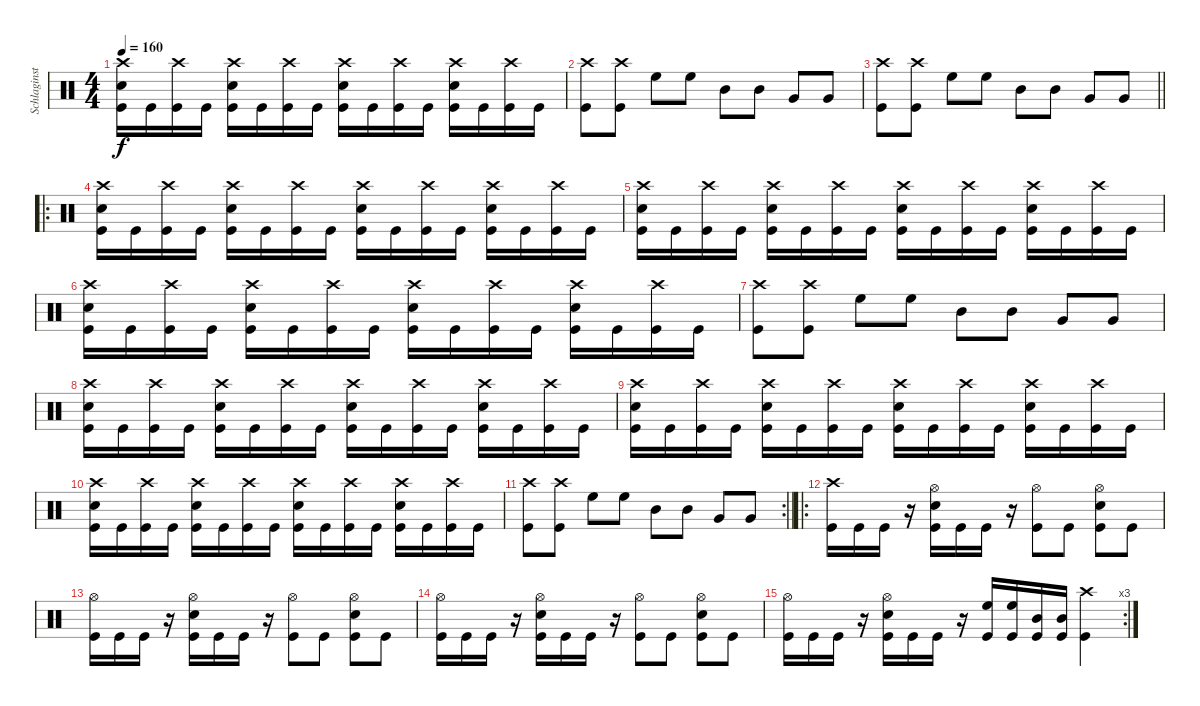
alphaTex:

\track ("Schlaginstrumente - Auswahl" "Schlaginst") {solo instrument percussion}
\staff {score}
\articulation defaults
\ts (4 4)
\tempo 160
\clef neutral
\ks c
("Kick (hit)" "Crash high (hit)" "Electric Snare (hit)").16{dy f} "Kick (hit)".16 ("Kick (hit)" "Crash high (hit)").16 "Kick (hit)".16 ("Kick (hit)" "Crash high (hit)" "Electric Snare (hit)").16 "Kick (hit)".16 ("Kick (hit)" "Crash high (hit)").16 "Kick (hit)".16 ("Kick (hit)" "Crash high (hit)" "Electric Snare (hit)").16 "Kick (hit)".16 ("Kick (hit)" "Crash high (hit)").16 "Kick (hit)".16 ("Kick (hit)" "Crash high (hit)" "Electric Snare (hit)").16 "Kick (hit)".16 ("Kick (hit)" "Crash high (hit)").16 "Kick (hit)".16 |
("Crash high (hit)" "Kick (hit)").8 ("Crash high (hit)" "Kick (hit)").8 "High Floor Tom (hit)".8 "High Floor Tom (hit)".8 "Mid Tom (hit)".8 "Mid Tom (hit)".8 "Very Low Tom (hit)".8 "Very Low Tom (hit)".8 |
\barLineRight lightlight
("Crash high (hit)" "Kick (hit)").8 ("Crash high (hit)" "Kick (hit)").8 "High Floor Tom (hit)".8 "High Floor Tom (hit)".8 "Mid Tom (hit)".8 "Mid Tom (hit)".8 "Very Low Tom (hit)".8 "Very Low Tom (hit)".8 |
\ro
("Kick (hit)" "Crash high (hit)" "Electric Snare (hit)").16 "Kick (hit)".16 ("Kick (hit)" "Crash high (hit)").16 "Kick (hit)".16 ("Kick (hit)" "Crash high (hit)" "Electric Snare (hit)").16 "Kick (hit)".16 ("Kick (hit)" "Crash high (hit)").16 "Kick (hit)".16 ("Kick (hit)" "Crash high (hit)" "Electric Snare (hit)").16 "Kick (hit)".16 ("Kick (hit)" "Crash high (hit)").16 "Kick (hit)".16 ("Kick (hit)" "Crash high (hit)" "Electric Snare (hit)").16 "Kick (hit)".16 ("Kick (hit)" "Crash high (hit)").16 "Kick (hit)".16 |
("Kick (hit)" "Crash high (hit)" "Electric Snare (hit)").16 "Kick (hit)".16 ("Kick (hit)" "Crash high (hit)").16 "Kick (hit)".16 ("Kick (hit)" "Crash high (hit)" "Electric Snare (hit)").16 "Kick (hit)".16 ("Kick (hit)" "Crash high (hit)").16 "Kick (hit)".16 ("Kick (hit)" "Crash high (hit)" "Electric Snare (hit)").16 "Kick (hit)".16 ("Kick (hit)" "Crash high (hit)").16 "Kick (hit)".16 ("Kick (hit)" "Crash high (hit)" "Electric Snare (hit)").16 "Kick (hit)".16 ("Kick (hit)" "Crash high (hit)").16 "Kick (hit)".16 |
("Kick (hit)" "Crash high (hit)" "Electric Snare (hit)").16 "Kick (hit)".16 ("Kick (hit)" "Crash high (hit)").16 "Kick (hit)".16 ("Kick (hit)" "Crash high (hit)" "Electric Snare (hit)").16 "Kick (hit)".16 ("Kick (hit)" "Crash high (hit)").16 "Kick (hit)".16 ("Kick (hit)" "Crash high (hit)" "Electric Snare (hit)").16 "Kick (hit)".16 ("Kick (hit)" "Crash high (hit)").16 "Kick (hit)".16 ("Kick (hit)" "Crash high (hit)" "Electric Snare (hit)").16 "Kick (hit)".16 ("Kick (hit)" "Crash high (hit)").16 "Kick (hit)".16 |
("Crash high (hit)" "Kick (hit)").8 ("Crash high (hit)" "Kick (hit)").8 "High Floor Tom (hit)".8 "High Floor Tom (hit)".8 "Mid Tom (hit)".8 "Mid Tom (hit)".8 "Very Low Tom (hit)".8 "Very Low Tom (hit)".8 |
("Kick (hit)" "Crash high (hit)" "Electric Snare (hit)").16 "Kick (hit)".16 ("Kick (hit)" "Crash high (hit)").16 "Kick (hit)".16 ("Kick (hit)" "Crash high (hit)" "Electric Snare (hit)").16 "Kick (hit)".16 ("Kick (hit)" "Crash high (hit)").16 "Kick (hit)".16 ("Kick (hit)" "Crash high (hit)" "Electric Snare (hit)").16 "Kick (hit)".16 ("Kick (hit)" "Crash high (hit)").16 "Kick (hit)".16 ("Kick (hit)" "Crash high (hit)" "Electric Snare (hit)").16 "Kick (hit)".16 ("Kick (hit)" "Crash high (hit)").16 "Kick (hit)".16 |
("Kick (hit)" "Crash high (hit)" "Electric Snare (hit)").16 "Kick (hit)".16 ("Kick (hit)" "Crash high (hit)").16 "Kick (hit)".16 ("Kick (hit)" "Crash high (hit)" "Electric Snare (hit)").16 "Kick (hit)".16 ("Kick (hit)" "Crash high (hit)").16 "Kick (hit)".16 ("Kick (hit)" "Crash high (hit)" "Electric Snare (hit)").16 "Kick (hit)".16 ("Kick (hit)" "Crash high (hit)").16 "Kick (hit)".16 ("Kick (hit)" "Crash high (hit)" "Electric Snare (hit)").16 "Kick (hit)".16 ("Kick (hit)" "Crash high (hit)").16 "Kick (hit)".16 |
("Kick (hit)" "Crash high (hit)" "Electric Snare (hit)").16 "Kick (hit)".16 ("Kick (hit)" "Crash high (hit)").16 "Kick (hit)".16 ("Kick (hit)" "Crash high (hit)" "Electric Snare (hit)").16 "Kick (hit)".16 ("Kick (hit)" "Crash high (hit)").16 "Kick (hit)".16 ("Kick (hit)" "Crash high (hit)" "Electric Snare (hit)").16 "Kick (hit)".16 ("Kick (hit)" "Crash high (hit)").16 "Kick (hit)".16 ("Kick (hit)" "Crash high (hit)" "Electric Snare (hit)").16 "Kick (hit)".16 ("Kick (hit)" "Crash high (hit)").16 "Kick (hit)".16 |
\rc 2
\barLineRight lightlight
("Crash high (hit)" "Kick (hit)").8 ("Crash high (hit)" "Kick (hit)").8 "High Floor Tom (hit)".8 "High Floor Tom (hit)".8 "Mid Tom (hit)".8 "Mid Tom (hit)".8 "Very Low Tom (hit)".8 "Very Low Tom (hit)".8 |
\ro
("Kick (hit)" "Crash high (hit)").16 "Kick (hit)".16 "Kick (hit)".16 r.16 ("Kick (hit)" "Hi-Hat (open)" "Electric Snare (hit)").16 "Kick (hit)".16 "Kick (hit)".16 r.16 ("Kick (hit)" "Hi-Hat (open)").8 "Kick (hit)".8 ("Kick (hit)" "Hi-Hat (open)" "Electric Snare (hit)").8 "Kick (hit)".8 |
("Kick (hit)" "Hi-Hat (open)").16 "Kick (hit)".16 "Kick (hit)".16 r.16 ("Kick (hit)" "Hi-Hat (open)" "Electric Snare (hit)").16 "Kick (hit)".16 "Kick (hit)".16 r.16 ("Kick (hit)" "Hi-Hat (open)").8 "Kick (hit)".8 ("Kick (hit)" "Hi-Hat (open)" "Electric Snare (hit)").8 "Kick (hit)".8 |
("Kick (hit)" "Hi-Hat (open)").16 "Kick (hit)".16 "Kick (hit)".16 r.16 ("Kick (hit)" "Hi-Hat (open)" "Electric Snare (hit)").16 "Kick (hit)".16 "Kick (hit)".16 r.16 ("Kick (hit)" "Hi-Hat (open)").8 "Kick (hit)".8 ("Kick (hit)" "Hi-Hat (open)" "Electric Snare (hit)").8 "Kick (hit)".8 |
\rc 3
("Kick (hit)" "Hi-Hat (open)").16 "Kick (hit)".16 "Kick (hit)".16 r.16 ("Kick (hit)" "Hi-Hat (open)" "Electric Snare (hit)").16 "Kick (hit)".16 "Kick (hit)".16 r.16 ("Kick (hit)" "High Floor Tom (hit)").16 ("Kick (hit)" "High Floor Tom (hit)").16 ("Kick (hit)" "Mid Tom (hit)").16 ("Kick (hit)" "Mid Tom (hit)").16 ("Kick (hit)" "Crash high (hit)").4
